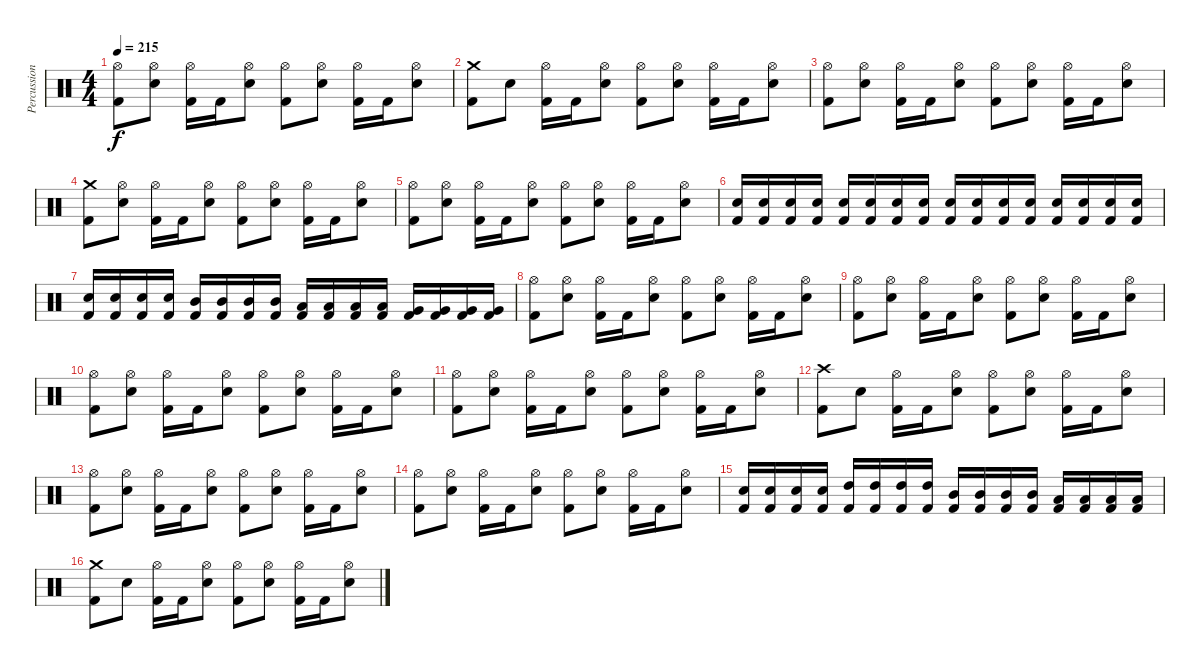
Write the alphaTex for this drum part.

\track ("Percussion" "Percussion") {instrument percussion}
\staff {score}
\articulation defaults
\ts (4 4)
\tempo 215
\clef neutral
\ks c
("Hi-Hat (open)" "Kick (hit) 2").8{dy f} ("Hi-Hat (open)" "Snare (hit) 2").8 ("Hi-Hat (open)" "Kick (hit) 2").16 "Kick (hit) 2".16 ("Hi-Hat (open)" "Snare (hit) 2").8 ("Hi-Hat (open)" "Kick (hit) 2").8 ("Hi-Hat (open)" "Snare (hit) 2").8 ("Hi-Hat (open)" "Kick (hit) 2").16 "Kick (hit) 2".16 ("Hi-Hat (open)" "Snare (hit) 2").8 |
("Crash medium (hit)" "Kick (hit) 2").8 "Snare (hit) 2".8 ("Hi-Hat (open)" "Kick (hit) 2").16 "Kick (hit) 2".16 ("Hi-Hat (open)" "Snare (hit) 2").8 ("Hi-Hat (open)" "Kick (hit) 2").8 ("Hi-Hat (open)" "Snare (hit) 2").8 ("Hi-Hat (open)" "Kick (hit) 2").16 "Kick (hit) 2".16 ("Hi-Hat (open)" "Snare (hit) 2").8 |
("Hi-Hat (open)" "Kick (hit) 2").8 ("Hi-Hat (open)" "Snare (hit) 2").8 ("Hi-Hat (open)" "Kick (hit) 2").16 "Kick (hit) 2".16 ("Hi-Hat (open)" "Snare (hit) 2").8 ("Hi-Hat (open)" "Kick (hit) 2").8 ("Hi-Hat (open)" "Snare (hit) 2").8 ("Hi-Hat (open)" "Kick (hit) 2").16 "Kick (hit) 2".16 ("Hi-Hat (open)" "Snare (hit) 2").8 |
("Crash medium (hit)" "Kick (hit) 2").8 ("Hi-Hat (open)" "Snare (hit) 2").8 ("Hi-Hat (open)" "Kick (hit) 2").16 "Kick (hit) 2".16 ("Hi-Hat (open)" "Snare (hit) 2").8 ("Hi-Hat (open)" "Kick (hit) 2").8 ("Hi-Hat (open)" "Snare (hit) 2").8 ("Hi-Hat (open)" "Kick (hit) 2").16 "Kick (hit) 2".16 ("Hi-Hat (open)" "Snare (hit) 2").8 |
("Hi-Hat (open)" "Kick (hit) 2").8 ("Hi-Hat (open)" "Snare (hit) 2").8 ("Hi-Hat (open)" "Kick (hit) 2").16 "Kick (hit) 2".16 ("Hi-Hat (open)" "Snare (hit) 2").8 ("Hi-Hat (open)" "Kick (hit) 2").8 ("Hi-Hat (open)" "Snare (hit) 2").8 ("Hi-Hat (open)" "Kick (hit) 2").16 "Kick (hit) 2".16 ("Hi-Hat (open)" "Snare (hit) 2").8 |
("Snare (hit) 2" "Kick (hit) 2").16 ("Snare (hit) 2" "Kick (hit) 2").16 ("Snare (hit) 2" "Kick (hit) 2").16 ("Snare (hit) 2" "Kick (hit) 2").16 ("Snare (hit) 2" "Kick (hit) 2").16 ("Snare (hit) 2" "Kick (hit) 2").16 ("Snare (hit) 2" "Kick (hit) 2").16 ("Snare (hit) 2" "Kick (hit) 2").16 ("Snare (hit) 2" "Kick (hit) 2").16 ("Snare (hit) 2" "Kick (hit) 2").16 ("Snare (hit) 2" "Kick (hit) 2").16 ("Snare (hit) 2" "Kick (hit) 2").16 ("Snare (hit) 2" "Kick (hit) 2").16 ("Snare (hit) 2" "Kick (hit) 2").16 ("Snare (hit) 2" "Kick (hit) 2").16 ("Snare (hit) 2" "Kick (hit) 2").16 |
("Snare (hit) 2" "Kick (hit) 2").16 ("Snare (hit) 2" "Kick (hit) 2").16 ("Snare (hit) 2" "Kick (hit) 2").16 ("Snare (hit) 2" "Kick (hit) 2").16 ("Mid Tom (hit)" "Kick (hit) 2").16 ("Mid Tom (hit)" "Kick (hit) 2").16 ("Mid Tom (hit)" "Kick (hit) 2").16 ("Mid Tom (hit)" "Kick (hit) 2").16 ("Low Tom (hit)" "Kick (hit) 2").16 ("Low Tom (hit)" "Kick (hit) 2").16 ("Low Tom (hit)" "Kick (hit) 2").16 ("Low Tom (hit)" "Kick (hit) 2").16 ("Very Low Tom (hit)" "Kick (hit) 2").16 ("Very Low Tom (hit)" "Kick (hit) 2").16 ("Very Low Tom (hit)" "Kick (hit) 2").16 ("Very Low Tom (hit)" "Kick (hit) 2").16 |
("Hi-Hat (open)" "Kick (hit) 2").8 ("Hi-Hat (open)" "Snare (hit) 2").8 ("Hi-Hat (open)" "Kick (hit) 2").16 "Kick (hit) 2".16 ("Hi-Hat (open)" "Snare (hit) 2").8 ("Hi-Hat (open)" "Kick (hit) 2").8 ("Hi-Hat (open)" "Snare (hit) 2").8 ("Hi-Hat (open)" "Kick (hit) 2").16 "Kick (hit) 2".16 ("Hi-Hat (open)" "Snare (hit) 2").8 |
("Hi-Hat (open)" "Kick (hit) 2").8 ("Hi-Hat (open)" "Snare (hit) 2").8 ("Hi-Hat (open)" "Kick (hit) 2").16 "Kick (hit) 2".16 ("Hi-Hat (open)" "Snare (hit) 2").8 ("Hi-Hat (open)" "Kick (hit) 2").8 ("Hi-Hat (open)" "Snare (hit) 2").8 ("Hi-Hat (open)" "Kick (hit) 2").16 "Kick (hit) 2".16 ("Hi-Hat (open)" "Snare (hit) 2").8 |
("Hi-Hat (open)" "Kick (hit) 2").8 ("Hi-Hat (open)" "Snare (hit) 2").8 ("Hi-Hat (open)" "Kick (hit) 2").16 "Kick (hit) 2".16 ("Hi-Hat (open)" "Snare (hit) 2").8 ("Hi-Hat (open)" "Kick (hit) 2").8 ("Hi-Hat (open)" "Snare (hit) 2").8 ("Hi-Hat (open)" "Kick (hit) 2").16 "Kick (hit) 2".16 ("Hi-Hat (open)" "Snare (hit) 2").8 |
("Hi-Hat (open)" "Kick (hit) 2").8 ("Hi-Hat (open)" "Snare (hit) 2").8 ("Hi-Hat (open)" "Kick (hit) 2").16 "Kick (hit) 2".16 ("Hi-Hat (open)" "Snare (hit) 2").8 ("Hi-Hat (open)" "Kick (hit) 2").8 ("Hi-Hat (open)" "Snare (hit) 2").8 ("Hi-Hat (open)" "Kick (hit) 2").16 "Kick (hit) 2".16 ("Hi-Hat (open)" "Snare (hit) 2").8 |
("Crash high (hit)" "Kick (hit) 2").8 "Snare (hit) 2".8 ("Hi-Hat (open)" "Kick (hit) 2").16 "Kick (hit) 2".16 ("Hi-Hat (open)" "Snare (hit) 2").8 ("Hi-Hat (open)" "Kick (hit) 2").8 ("Hi-Hat (open)" "Snare (hit) 2").8 ("Hi-Hat (open)" "Kick (hit) 2").16 "Kick (hit) 2".16 ("Hi-Hat (open)" "Snare (hit) 2").8 |
("Hi-Hat (open)" "Kick (hit) 2").8 ("Hi-Hat (open)" "Snare (hit) 2").8 ("Hi-Hat (open)" "Kick (hit) 2").16 "Kick (hit) 2".16 ("Hi-Hat (open)" "Snare (hit) 2").8 ("Hi-Hat (open)" "Kick (hit) 2").8 ("Hi-Hat (open)" "Snare (hit) 2").8 ("Hi-Hat (open)" "Kick (hit) 2").16 "Kick (hit) 2".16 ("Hi-Hat (open)" "Snare (hit) 2").8 |
("Hi-Hat (open)" "Kick (hit) 2").8 ("Hi-Hat (open)" "Snare (hit) 2").8 ("Hi-Hat (open)" "Kick (hit) 2").16 "Kick (hit) 2".16 ("Hi-Hat (open)" "Snare (hit) 2").8 ("Hi-Hat (open)" "Kick (hit) 2").8 ("Hi-Hat (open)" "Snare (hit) 2").8 ("Hi-Hat (open)" "Kick (hit) 2").16 "Kick (hit) 2".16 ("Hi-Hat (open)" "Snare (hit) 2").8 |
("Snare (hit) 2" "Kick (hit) 2").16 ("Snare (hit) 2" "Kick (hit) 2").16 ("Snare (hit) 2" "Kick (hit) 2").16 ("Snare (hit) 2" "Kick (hit) 2").16 ("High Tom (hit)" "Kick (hit) 2").16 ("High Tom (hit)" "Kick (hit) 2").16 ("High Tom (hit)" "Kick (hit) 2").16 ("High Tom (hit)" "Kick (hit) 2").16 ("Mid Tom (hit)" "Kick (hit) 2").16 ("Mid Tom (hit)" "Kick (hit) 2").16 ("Mid Tom (hit)" "Kick (hit) 2").16 ("Mid Tom (hit)" "Kick (hit) 2").16 ("Low Tom (hit)" "Kick (hit) 2").16 ("Low Tom (hit)" "Kick (hit) 2").16 ("Low Tom (hit)" "Kick (hit) 2").16 ("Low Tom (hit)" "Kick (hit) 2").16 |
("Crash medium (hit)" "Kick (hit) 2").8 "Snare (hit) 2".8 ("Hi-Hat (open)" "Kick (hit) 2").16 "Kick (hit) 2".16 ("Hi-Hat (open)" "Snare (hit) 2").8 ("Hi-Hat (open)" "Kick (hit) 2").8 ("Hi-Hat (open)" "Snare (hit) 2").8 ("Hi-Hat (open)" "Kick (hit) 2").16 "Kick (hit) 2".16 ("Hi-Hat (open)" "Snare (hit) 2").8
